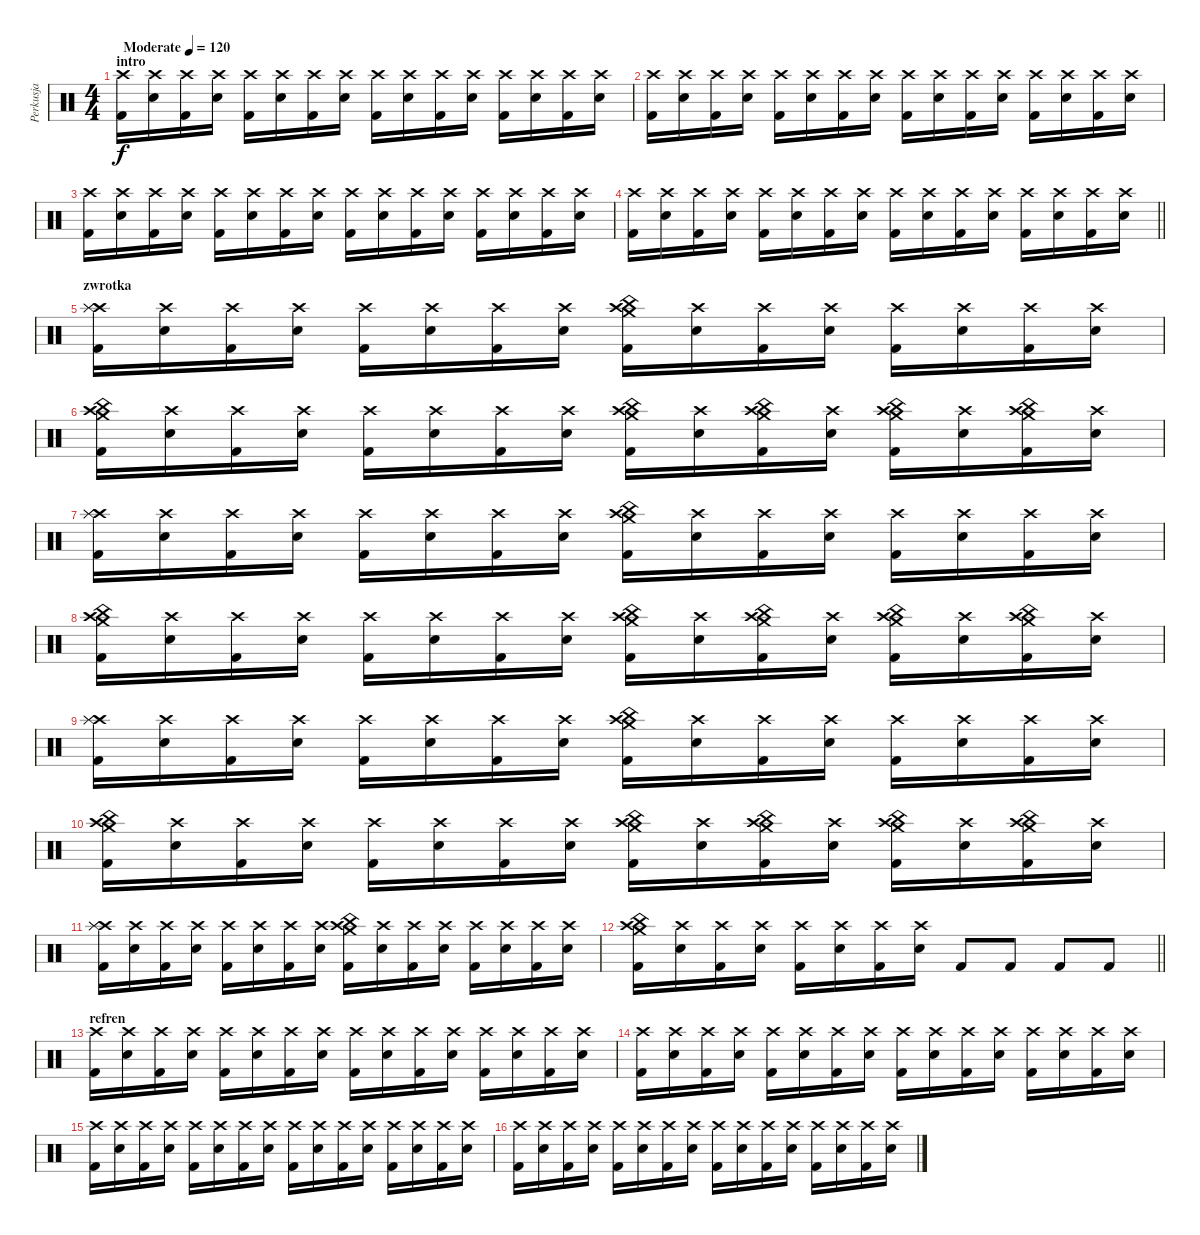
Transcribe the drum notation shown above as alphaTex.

\track ("Perkusja" "Perkusja") {instrument percussion}
\staff {score}
\articulation defaults
\ts (4 4)
\section ("" "intro")
\tempo (120 "Moderate")
\clef neutral
\ks c
("Kick (hit) 2" "Crash high (hit)").16{dy f} ("Snare (hit) 2" "Crash high (hit)").16 ("Kick (hit) 2" "Crash high (hit)").16 ("Snare (hit) 2" "Crash high (hit)").16 ("Kick (hit) 2" "Crash high (hit)").16 ("Snare (hit) 2" "Crash high (hit)").16 ("Kick (hit) 2" "Crash high (hit)").16 ("Snare (hit) 2" "Crash high (hit)").16 ("Kick (hit) 2" "Crash high (hit)").16 ("Snare (hit) 2" "Crash high (hit)").16 ("Kick (hit) 2" "Crash high (hit)").16 ("Snare (hit) 2" "Crash high (hit)").16 ("Kick (hit) 2" "Crash high (hit)").16 ("Snare (hit) 2" "Crash high (hit)").16 ("Kick (hit) 2" "Crash high (hit)").16 ("Snare (hit) 2" "Crash high (hit)").16 |
("Kick (hit) 2" "Crash high (hit)").16 ("Snare (hit) 2" "Crash high (hit)").16 ("Kick (hit) 2" "Crash high (hit)").16 ("Snare (hit) 2" "Crash high (hit)").16 ("Kick (hit) 2" "Crash high (hit)").16 ("Snare (hit) 2" "Crash high (hit)").16 ("Kick (hit) 2" "Crash high (hit)").16 ("Snare (hit) 2" "Crash high (hit)").16 ("Kick (hit) 2" "Crash high (hit)").16 ("Snare (hit) 2" "Crash high (hit)").16 ("Kick (hit) 2" "Crash high (hit)").16 ("Snare (hit) 2" "Crash high (hit)").16 ("Kick (hit) 2" "Crash high (hit)").16 ("Snare (hit) 2" "Crash high (hit)").16 ("Kick (hit) 2" "Crash high (hit)").16 ("Snare (hit) 2" "Crash high (hit)").16 |
("Kick (hit) 2" "Crash high (hit)").16 ("Snare (hit) 2" "Crash high (hit)").16 ("Kick (hit) 2" "Crash high (hit)").16 ("Snare (hit) 2" "Crash high (hit)").16 ("Kick (hit) 2" "Crash high (hit)").16 ("Snare (hit) 2" "Crash high (hit)").16 ("Kick (hit) 2" "Crash high (hit)").16 ("Snare (hit) 2" "Crash high (hit)").16 ("Kick (hit) 2" "Crash high (hit)").16 ("Snare (hit) 2" "Crash high (hit)").16 ("Kick (hit) 2" "Crash high (hit)").16 ("Snare (hit) 2" "Crash high (hit)").16 ("Kick (hit) 2" "Crash high (hit)").16 ("Snare (hit) 2" "Crash high (hit)").16 ("Kick (hit) 2" "Crash high (hit)").16 ("Snare (hit) 2" "Crash high (hit)").16 |
\barLineRight lightlight
("Kick (hit) 2" "Crash high (hit)").16 ("Snare (hit) 2" "Crash high (hit)").16 ("Kick (hit) 2" "Crash high (hit)").16 ("Snare (hit) 2" "Crash high (hit)").16 ("Kick (hit) 2" "Crash high (hit)").16 ("Snare (hit) 2" "Crash high (hit)").16 ("Kick (hit) 2" "Crash high (hit)").16 ("Snare (hit) 2" "Crash high (hit)").16 ("Kick (hit) 2" "Crash high (hit)").16 ("Snare (hit) 2" "Crash high (hit)").16 ("Kick (hit) 2" "Crash high (hit)").16 ("Snare (hit) 2" "Crash high (hit)").16 ("Kick (hit) 2" "Crash high (hit)").16 ("Snare (hit) 2" "Crash high (hit)").16 ("Kick (hit) 2" "Crash high (hit)").16 ("Snare (hit) 2" "Crash high (hit)").16 |
\section ("" "zwrotka")
("Kick (hit) 2" "Crash high (hit)" "Splash (hit)" "Splash (hit)").16 ("Snare (hit) 2" "Crash high (hit)").16 ("Kick (hit) 2" "Crash high (hit)").16 ("Snare (hit) 2" "Crash high (hit)").16 ("Kick (hit) 2" "Crash high (hit)").16 ("Snare (hit) 2" "Crash high (hit)").16 ("Kick (hit) 2" "Crash high (hit)").16 ("Snare (hit) 2" "Crash high (hit)").16 ("Kick (hit) 2" "Crash high (hit)" "Crash medium (hit)" "China (hit)").16 ("Snare (hit) 2" "Crash high (hit)").16 ("Kick (hit) 2" "Crash high (hit)").16 ("Snare (hit) 2" "Crash high (hit)").16 ("Kick (hit) 2" "Crash high (hit)").16 ("Snare (hit) 2" "Crash high (hit)").16 ("Kick (hit) 2" "Crash high (hit)").16 ("Snare (hit) 2" "Crash high (hit)").16 |
("Kick (hit) 2" "Crash high (hit)" "Crash medium (hit)" "China (hit)").16 ("Snare (hit) 2" "Crash high (hit)").16 ("Kick (hit) 2" "Crash high (hit)").16 ("Snare (hit) 2" "Crash high (hit)").16 ("Kick (hit) 2" "Crash high (hit)").16 ("Snare (hit) 2" "Crash high (hit)").16 ("Kick (hit) 2" "Crash high (hit)").16 ("Snare (hit) 2" "Crash high (hit)").16 ("Kick (hit) 2" "Crash high (hit)" "Crash medium (hit)" "China (hit)").16 ("Snare (hit) 2" "Crash high (hit)").16 ("Kick (hit) 2" "Crash high (hit)" "Crash medium (hit)" "China (hit)").16 ("Snare (hit) 2" "Crash high (hit)").16 ("Kick (hit) 2" "Crash high (hit)" "Crash medium (hit)" "China (hit)").16 ("Snare (hit) 2" "Crash high (hit)").16 ("Kick (hit) 2" "Crash high (hit)" "Crash medium (hit)" "China (hit)").16 ("Snare (hit) 2" "Crash high (hit)").16 |
("Kick (hit) 2" "Crash high (hit)" "Splash (hit)" "Splash (hit)").16 ("Snare (hit) 2" "Crash high (hit)").16 ("Kick (hit) 2" "Crash high (hit)").16 ("Snare (hit) 2" "Crash high (hit)").16 ("Kick (hit) 2" "Crash high (hit)").16 ("Snare (hit) 2" "Crash high (hit)").16 ("Kick (hit) 2" "Crash high (hit)").16 ("Snare (hit) 2" "Crash high (hit)").16 ("Kick (hit) 2" "Crash high (hit)" "Crash medium (hit)" "China (hit)").16 ("Snare (hit) 2" "Crash high (hit)").16 ("Kick (hit) 2" "Crash high (hit)").16 ("Snare (hit) 2" "Crash high (hit)").16 ("Kick (hit) 2" "Crash high (hit)").16 ("Snare (hit) 2" "Crash high (hit)").16 ("Kick (hit) 2" "Crash high (hit)").16 ("Snare (hit) 2" "Crash high (hit)").16 |
("Kick (hit) 2" "Crash high (hit)" "Crash medium (hit)" "China (hit)").16 ("Snare (hit) 2" "Crash high (hit)").16 ("Kick (hit) 2" "Crash high (hit)").16 ("Snare (hit) 2" "Crash high (hit)").16 ("Kick (hit) 2" "Crash high (hit)").16 ("Snare (hit) 2" "Crash high (hit)").16 ("Kick (hit) 2" "Crash high (hit)").16 ("Snare (hit) 2" "Crash high (hit)").16 ("Kick (hit) 2" "Crash high (hit)" "Crash medium (hit)" "China (hit)").16 ("Snare (hit) 2" "Crash high (hit)").16 ("Kick (hit) 2" "Crash high (hit)" "Crash medium (hit)" "China (hit)").16 ("Snare (hit) 2" "Crash high (hit)").16 ("Kick (hit) 2" "Crash high (hit)" "Crash medium (hit)" "China (hit)").16 ("Snare (hit) 2" "Crash high (hit)").16 ("Kick (hit) 2" "Crash high (hit)" "Crash medium (hit)" "China (hit)").16 ("Snare (hit) 2" "Crash high (hit)").16 |
("Kick (hit) 2" "Crash high (hit)" "Splash (hit)" "Splash (hit)").16 ("Snare (hit) 2" "Crash high (hit)").16 ("Kick (hit) 2" "Crash high (hit)").16 ("Snare (hit) 2" "Crash high (hit)").16 ("Kick (hit) 2" "Crash high (hit)").16 ("Snare (hit) 2" "Crash high (hit)").16 ("Kick (hit) 2" "Crash high (hit)").16 ("Snare (hit) 2" "Crash high (hit)").16 ("Kick (hit) 2" "Crash high (hit)" "Crash medium (hit)" "China (hit)").16 ("Snare (hit) 2" "Crash high (hit)").16 ("Kick (hit) 2" "Crash high (hit)").16 ("Snare (hit) 2" "Crash high (hit)").16 ("Kick (hit) 2" "Crash high (hit)").16 ("Snare (hit) 2" "Crash high (hit)").16 ("Kick (hit) 2" "Crash high (hit)").16 ("Snare (hit) 2" "Crash high (hit)").16 |
("Kick (hit) 2" "Crash high (hit)" "Crash medium (hit)" "China (hit)").16 ("Snare (hit) 2" "Crash high (hit)").16 ("Kick (hit) 2" "Crash high (hit)").16 ("Snare (hit) 2" "Crash high (hit)").16 ("Kick (hit) 2" "Crash high (hit)").16 ("Snare (hit) 2" "Crash high (hit)").16 ("Kick (hit) 2" "Crash high (hit)").16 ("Snare (hit) 2" "Crash high (hit)").16 ("Kick (hit) 2" "Crash high (hit)" "Crash medium (hit)" "China (hit)").16 ("Snare (hit) 2" "Crash high (hit)").16 ("Kick (hit) 2" "Crash high (hit)" "Crash medium (hit)" "China (hit)").16 ("Snare (hit) 2" "Crash high (hit)").16 ("Kick (hit) 2" "Crash high (hit)" "Crash medium (hit)" "China (hit)").16 ("Snare (hit) 2" "Crash high (hit)").16 ("Kick (hit) 2" "Crash high (hit)" "Crash medium (hit)" "China (hit)").16 ("Snare (hit) 2" "Crash high (hit)").16 |
("Kick (hit) 2" "Crash high (hit)" "Splash (hit)" "Splash (hit)").16 ("Snare (hit) 2" "Crash high (hit)").16 ("Kick (hit) 2" "Crash high (hit)").16 ("Snare (hit) 2" "Crash high (hit)").16 ("Kick (hit) 2" "Crash high (hit)").16 ("Snare (hit) 2" "Crash high (hit)").16 ("Kick (hit) 2" "Crash high (hit)").16 ("Snare (hit) 2" "Crash high (hit)").16 ("Kick (hit) 2" "Crash high (hit)" "Crash medium (hit)" "China (hit)").16 ("Snare (hit) 2" "Crash high (hit)").16 ("Kick (hit) 2" "Crash high (hit)").16 ("Snare (hit) 2" "Crash high (hit)").16 ("Kick (hit) 2" "Crash high (hit)").16 ("Snare (hit) 2" "Crash high (hit)").16 ("Kick (hit) 2" "Crash high (hit)").16 ("Snare (hit) 2" "Crash high (hit)").16 |
\barLineRight lightlight
("Kick (hit) 2" "Crash high (hit)" "Crash medium (hit)" "China (hit)").16 ("Snare (hit) 2" "Crash high (hit)").16 ("Kick (hit) 2" "Crash high (hit)").16 ("Snare (hit) 2" "Crash high (hit)").16 ("Kick (hit) 2" "Crash high (hit)").16 ("Snare (hit) 2" "Crash high (hit)").16 ("Kick (hit) 2" "Crash high (hit)").16 ("Snare (hit) 2" "Crash high (hit)").16 "Kick (hit) 2".8 "Kick (hit) 2".8 "Kick (hit) 2".8 "Kick (hit) 2".8 |
\section ("" "refren")
("Kick (hit) 2" "Crash high (hit)").16 ("Snare (hit) 2" "Crash high (hit)").16 ("Kick (hit) 2" "Crash high (hit)").16 ("Snare (hit) 2" "Crash high (hit)").16 ("Kick (hit) 2" "Crash high (hit)").16 ("Snare (hit) 2" "Crash high (hit)").16 ("Kick (hit) 2" "Crash high (hit)").16 ("Snare (hit) 2" "Crash high (hit)").16 ("Kick (hit) 2" "Crash high (hit)").16 ("Snare (hit) 2" "Crash high (hit)").16 ("Kick (hit) 2" "Crash high (hit)").16 ("Snare (hit) 2" "Crash high (hit)").16 ("Kick (hit) 2" "Crash high (hit)").16 ("Snare (hit) 2" "Crash high (hit)").16 ("Kick (hit) 2" "Crash high (hit)").16 ("Snare (hit) 2" "Crash high (hit)").16 |
("Kick (hit) 2" "Crash high (hit)").16 ("Snare (hit) 2" "Crash high (hit)").16 ("Kick (hit) 2" "Crash high (hit)").16 ("Snare (hit) 2" "Crash high (hit)").16 ("Kick (hit) 2" "Crash high (hit)").16 ("Snare (hit) 2" "Crash high (hit)").16 ("Kick (hit) 2" "Crash high (hit)").16 ("Snare (hit) 2" "Crash high (hit)").16 ("Kick (hit) 2" "Crash high (hit)").16 ("Snare (hit) 2" "Crash high (hit)").16 ("Kick (hit) 2" "Crash high (hit)").16 ("Snare (hit) 2" "Crash high (hit)").16 ("Kick (hit) 2" "Crash high (hit)").16 ("Snare (hit) 2" "Crash high (hit)").16 ("Kick (hit) 2" "Crash high (hit)").16 ("Snare (hit) 2" "Crash high (hit)").16 |
("Kick (hit) 2" "Crash high (hit)").16 ("Snare (hit) 2" "Crash high (hit)").16 ("Kick (hit) 2" "Crash high (hit)").16 ("Snare (hit) 2" "Crash high (hit)").16 ("Kick (hit) 2" "Crash high (hit)").16 ("Snare (hit) 2" "Crash high (hit)").16 ("Kick (hit) 2" "Crash high (hit)").16 ("Snare (hit) 2" "Crash high (hit)").16 ("Kick (hit) 2" "Crash high (hit)").16 ("Snare (hit) 2" "Crash high (hit)").16 ("Kick (hit) 2" "Crash high (hit)").16 ("Snare (hit) 2" "Crash high (hit)").16 ("Kick (hit) 2" "Crash high (hit)").16 ("Snare (hit) 2" "Crash high (hit)").16 ("Kick (hit) 2" "Crash high (hit)").16 ("Snare (hit) 2" "Crash high (hit)").16 |
("Kick (hit) 2" "Crash high (hit)").16 ("Snare (hit) 2" "Crash high (hit)").16 ("Kick (hit) 2" "Crash high (hit)").16 ("Snare (hit) 2" "Crash high (hit)").16 ("Kick (hit) 2" "Crash high (hit)").16 ("Snare (hit) 2" "Crash high (hit)").16 ("Kick (hit) 2" "Crash high (hit)").16 ("Snare (hit) 2" "Crash high (hit)").16 ("Kick (hit) 2" "Crash high (hit)").16 ("Snare (hit) 2" "Crash high (hit)").16 ("Kick (hit) 2" "Crash high (hit)").16 ("Snare (hit) 2" "Crash high (hit)").16 ("Kick (hit) 2" "Crash high (hit)").16 ("Snare (hit) 2" "Crash high (hit)").16 ("Kick (hit) 2" "Crash high (hit)").16 ("Snare (hit) 2" "Crash high (hit)").16
